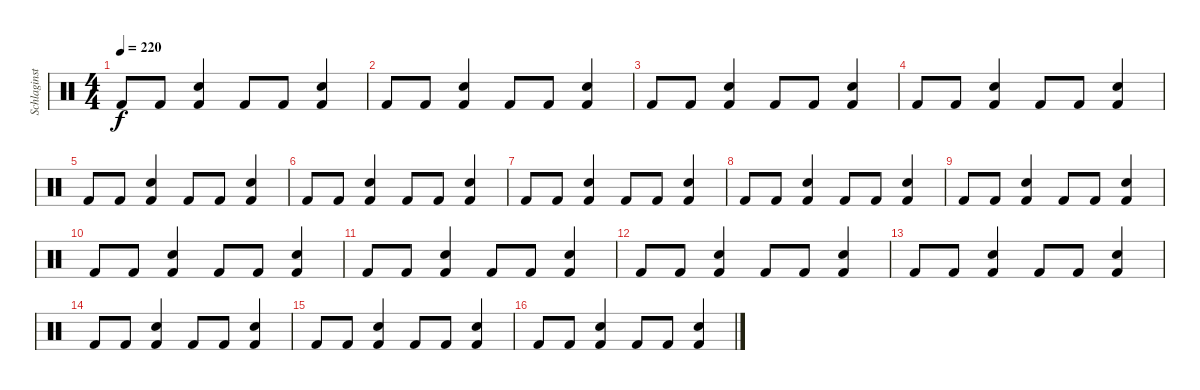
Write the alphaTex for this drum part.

\track ("Schlaginstrumente - Auswahl" "Schlaginst") {instrument percussion}
\staff {score}
\articulation defaults
\ts (4 4)
\tempo 220
\clef neutral
\ks c "Kick (hit) 2".8{dy f} "Kick (hit) 2".8
("Snare (hit) 2" "Kick (hit) 2").4 "Kick (hit) 2".8 "Kick (hit) 2".8 ("Snare (hit) 2" "Kick (hit) 2").4 |
"Kick (hit) 2".8 "Kick (hit) 2".8 ("Snare (hit) 2" "Kick (hit) 2").4 "Kick (hit) 2".8 "Kick (hit) 2".8 ("Snare (hit) 2" "Kick (hit) 2").4 |
"Kick (hit) 2".8 "Kick (hit) 2".8 ("Snare (hit) 2" "Kick (hit) 2").4 "Kick (hit) 2".8 "Kick (hit) 2".8 ("Snare (hit) 2" "Kick (hit) 2").4 |
"Kick (hit) 2".8 "Kick (hit) 2".8 ("Snare (hit) 2" "Kick (hit) 2").4 "Kick (hit) 2".8 "Kick (hit) 2".8 ("Snare (hit) 2" "Kick (hit) 2").4 |
"Kick (hit) 2".8 "Kick (hit) 2".8 ("Snare (hit) 2" "Kick (hit) 2").4 "Kick (hit) 2".8 "Kick (hit) 2".8 ("Snare (hit) 2" "Kick (hit) 2").4 |
"Kick (hit) 2".8 "Kick (hit) 2".8 ("Snare (hit) 2" "Kick (hit) 2").4 "Kick (hit) 2".8 "Kick (hit) 2".8 ("Snare (hit) 2" "Kick (hit) 2").4 |
"Kick (hit) 2".8 "Kick (hit) 2".8 ("Snare (hit) 2" "Kick (hit) 2").4 "Kick (hit) 2".8 "Kick (hit) 2".8 ("Snare (hit) 2" "Kick (hit) 2").4 |
"Kick (hit) 2".8 "Kick (hit) 2".8 ("Snare (hit) 2" "Kick (hit) 2").4 "Kick (hit) 2".8 "Kick (hit) 2".8 ("Snare (hit) 2" "Kick (hit) 2").4 |
"Kick (hit) 2".8 "Kick (hit) 2".8 ("Snare (hit) 2" "Kick (hit) 2").4 "Kick (hit) 2".8 "Kick (hit) 2".8 ("Snare (hit) 2" "Kick (hit) 2").4 |
"Kick (hit) 2".8 "Kick (hit) 2".8 ("Snare (hit) 2" "Kick (hit) 2").4 "Kick (hit) 2".8 "Kick (hit) 2".8 ("Snare (hit) 2" "Kick (hit) 2").4 |
"Kick (hit) 2".8 "Kick (hit) 2".8 ("Snare (hit) 2" "Kick (hit) 2").4 "Kick (hit) 2".8 "Kick (hit) 2".8 ("Snare (hit) 2" "Kick (hit) 2").4 |
"Kick (hit) 2".8 "Kick (hit) 2".8 ("Snare (hit) 2" "Kick (hit) 2").4 "Kick (hit) 2".8 "Kick (hit) 2".8 ("Snare (hit) 2" "Kick (hit) 2").4 |
"Kick (hit) 2".8 "Kick (hit) 2".8 ("Snare (hit) 2" "Kick (hit) 2").4 "Kick (hit) 2".8 "Kick (hit) 2".8 ("Snare (hit) 2" "Kick (hit) 2").4 |
"Kick (hit) 2".8 "Kick (hit) 2".8 ("Snare (hit) 2" "Kick (hit) 2").4 "Kick (hit) 2".8 "Kick (hit) 2".8 ("Snare (hit) 2" "Kick (hit) 2").4 |
"Kick (hit) 2".8 "Kick (hit) 2".8 ("Snare (hit) 2" "Kick (hit) 2").4 "Kick (hit) 2".8 "Kick (hit) 2".8 ("Snare (hit) 2" "Kick (hit) 2").4 |
"Kick (hit) 2".8 "Kick (hit) 2".8 ("Snare (hit) 2" "Kick (hit) 2").4 "Kick (hit) 2".8 "Kick (hit) 2".8 ("Snare (hit) 2" "Kick (hit) 2").4
